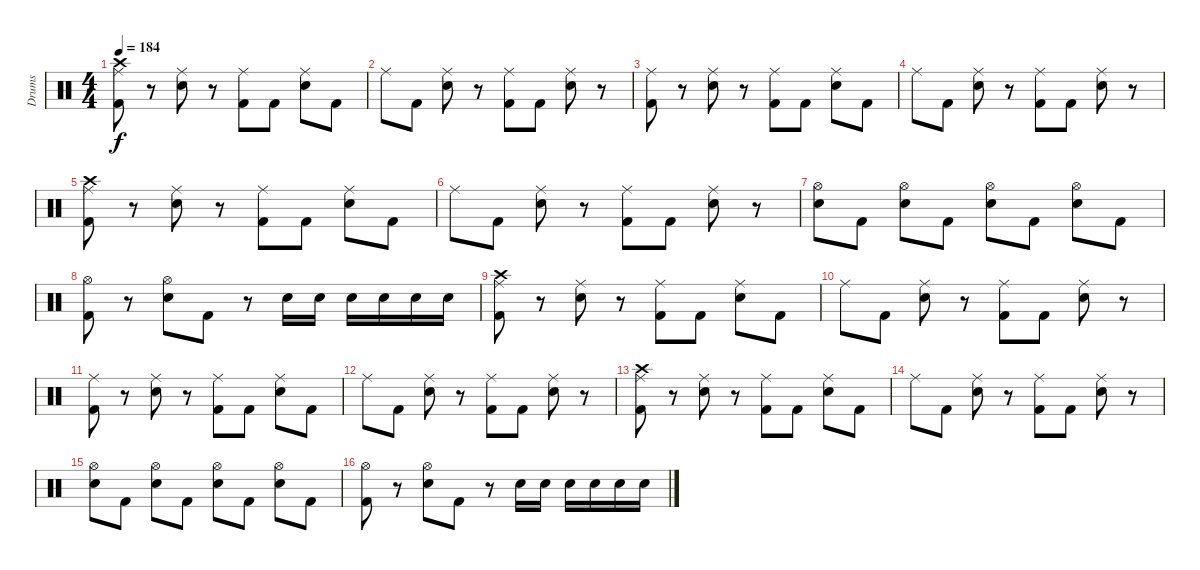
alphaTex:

\track ("Drums" "Drums") {instrument percussion}
\staff {score}
\articulation defaults
\ts (4 4)
\tempo 184
\clef neutral
\ks c
("Crash high (hit)" "Ride (middle)" "Kick (hit) 2").8{dy f} r.8 ("Ride (middle)" "Snare (hit) 2").8 r.8 ("Ride (middle)" "Kick (hit) 2").8 "Kick (hit) 2".8 ("Ride (middle)" "Snare (hit) 2").8 "Kick (hit) 2".8 |
"Ride (middle)".8 "Kick (hit) 2".8 ("Ride (middle)" "Snare (hit) 2").8 r.8 ("Ride (middle)" "Kick (hit) 2").8 "Kick (hit) 2".8 ("Ride (middle)" "Snare (hit) 2").8 r.8 |
("Ride (middle)" "Kick (hit) 2").8 r.8 ("Ride (middle)" "Snare (hit) 2").8 r.8 ("Ride (middle)" "Kick (hit) 2").8 "Kick (hit) 2".8 ("Ride (middle)" "Snare (hit) 2").8 "Kick (hit) 2".8 |
"Ride (middle)".8 "Kick (hit) 2".8 ("Ride (middle)" "Snare (hit) 2").8 r.8 ("Ride (middle)" "Kick (hit) 2").8 "Kick (hit) 2".8 ("Ride (middle)" "Snare (hit) 2").8 r.8 |
("Crash high (hit)" "Ride (middle)" "Kick (hit) 2").8 r.8 ("Ride (middle)" "Snare (hit) 2").8 r.8 ("Ride (middle)" "Kick (hit) 2").8 "Kick (hit) 2".8 ("Ride (middle)" "Snare (hit) 2").8 "Kick (hit) 2".8 |
"Ride (middle)".8 "Kick (hit) 2".8 ("Ride (middle)" "Snare (hit) 2").8 r.8 ("Ride (middle)" "Kick (hit) 2").8 "Kick (hit) 2".8 ("Ride (middle)" "Snare (hit) 2").8 r.8 |
("Hi-Hat (open)" "Snare (hit) 2").8 "Kick (hit) 2".8 ("Hi-Hat (open)" "Snare (hit) 2").8 "Kick (hit) 2".8 ("Hi-Hat (open)" "Snare (hit) 2").8 "Kick (hit) 2".8 ("Hi-Hat (open)" "Snare (hit) 2").8 "Kick (hit) 2".8 |
("Hi-Hat (open)" "Kick (hit) 2").8 r.8 ("Hi-Hat (open)" "Snare (hit) 2").8 "Kick (hit) 2".8 r.8 "Snare (hit) 2".16 "Snare (hit) 2".16 "Snare (hit) 2".16 "Snare (hit) 2".16 "Snare (hit) 2".16 "Snare (hit) 2".16 |
("Crash high (hit)" "Ride (middle)" "Kick (hit) 2").8 r.8 ("Ride (middle)" "Snare (hit) 2").8 r.8 ("Ride (middle)" "Kick (hit) 2").8 "Kick (hit) 2".8 ("Ride (middle)" "Snare (hit) 2").8 "Kick (hit) 2".8 |
"Ride (middle)".8 "Kick (hit) 2".8 ("Ride (middle)" "Snare (hit) 2").8 r.8 ("Ride (middle)" "Kick (hit) 2").8 "Kick (hit) 2".8 ("Ride (middle)" "Snare (hit) 2").8 r.8 |
("Ride (middle)" "Kick (hit) 2").8 r.8 ("Ride (middle)" "Snare (hit) 2").8 r.8 ("Ride (middle)" "Kick (hit) 2").8 "Kick (hit) 2".8 ("Ride (middle)" "Snare (hit) 2").8 "Kick (hit) 2".8 |
"Ride (middle)".8 "Kick (hit) 2".8 ("Ride (middle)" "Snare (hit) 2").8 r.8 ("Ride (middle)" "Kick (hit) 2").8 "Kick (hit) 2".8 ("Ride (middle)" "Snare (hit) 2").8 r.8 |
("Crash high (hit)" "Ride (middle)" "Kick (hit) 2").8 r.8 ("Ride (middle)" "Snare (hit) 2").8 r.8 ("Ride (middle)" "Kick (hit) 2").8 "Kick (hit) 2".8 ("Ride (middle)" "Snare (hit) 2").8 "Kick (hit) 2".8 |
"Ride (middle)".8 "Kick (hit) 2".8 ("Ride (middle)" "Snare (hit) 2").8 r.8 ("Ride (middle)" "Kick (hit) 2").8 "Kick (hit) 2".8 ("Ride (middle)" "Snare (hit) 2").8 r.8 |
("Hi-Hat (open)" "Snare (hit) 2").8 "Kick (hit) 2".8 ("Hi-Hat (open)" "Snare (hit) 2").8 "Kick (hit) 2".8 ("Hi-Hat (open)" "Snare (hit) 2").8 "Kick (hit) 2".8 ("Hi-Hat (open)" "Snare (hit) 2").8 "Kick (hit) 2".8 |
("Hi-Hat (open)" "Kick (hit) 2").8 r.8 ("Hi-Hat (open)" "Snare (hit) 2").8 "Kick (hit) 2".8 r.8 "Snare (hit) 2".16 "Snare (hit) 2".16 "Snare (hit) 2".16 "Snare (hit) 2".16 "Snare (hit) 2".16 "Snare (hit) 2".16
